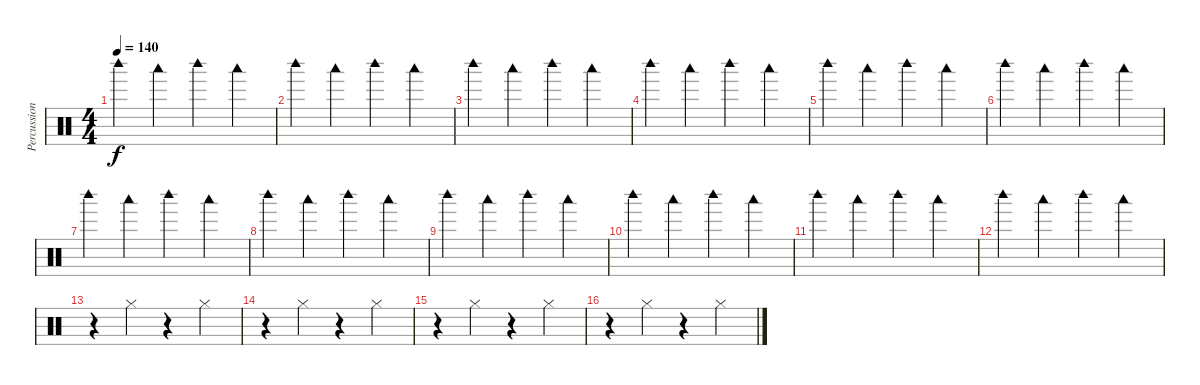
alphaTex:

\track ("Percussions" "Percussion") {instrument percussion}
\staff {score}
\articulation defaults
\ts (4 4)
\tempo 140
\clef neutral
\ks c "Woodblock high (hit)".4{dy f} "Woodblock low (hit)".4 "Woodblock high (hit)".4 "Woodblock low (hit)".4
|
"Woodblock high (hit)".4 "Woodblock low (hit)".4 "Woodblock high (hit)".4 "Woodblock low (hit)".4 |
"Woodblock high (hit)".4 "Woodblock low (hit)".4 "Woodblock high (hit)".4 "Woodblock low (hit)".4 |
"Woodblock high (hit)".4 "Woodblock low (hit)".4 "Woodblock high (hit)".4 "Woodblock low (hit)".4 |
"Woodblock high (hit)".4 "Woodblock low (hit)".4 "Woodblock high (hit)".4 "Woodblock low (hit)".4 |
"Woodblock high (hit)".4 "Woodblock low (hit)".4 "Woodblock high (hit)".4 "Woodblock low (hit)".4 |
"Woodblock high (hit)".4 "Woodblock low (hit)".4 "Woodblock high (hit)".4 "Woodblock low (hit)".4 |
"Woodblock high (hit)".4 "Woodblock low (hit)".4 "Woodblock high (hit)".4 "Woodblock low (hit)".4 |
"Woodblock high (hit)".4 "Woodblock low (hit)".4 "Woodblock high (hit)".4 "Woodblock low (hit)".4 |
"Woodblock high (hit)".4 "Woodblock low (hit)".4 "Woodblock high (hit)".4 "Woodblock low (hit)".4 |
"Woodblock high (hit)".4 "Woodblock low (hit)".4 "Woodblock high (hit)".4 "Woodblock low (hit)".4 |
"Woodblock high (hit)".4 "Woodblock low (hit)".4 "Woodblock high (hit)".4 "Woodblock low (hit)".4 |
r.4 "Hi-Hat (closed)".4 r.4 "Hi-Hat (closed)".4 |
r.4 "Hi-Hat (closed)".4 r.4 "Hi-Hat (closed)".4 |
r.4 "Hi-Hat (closed)".4 r.4 "Hi-Hat (closed)".4 |
r.4 "Hi-Hat (closed)".4 r.4 "Hi-Hat (closed)".4
